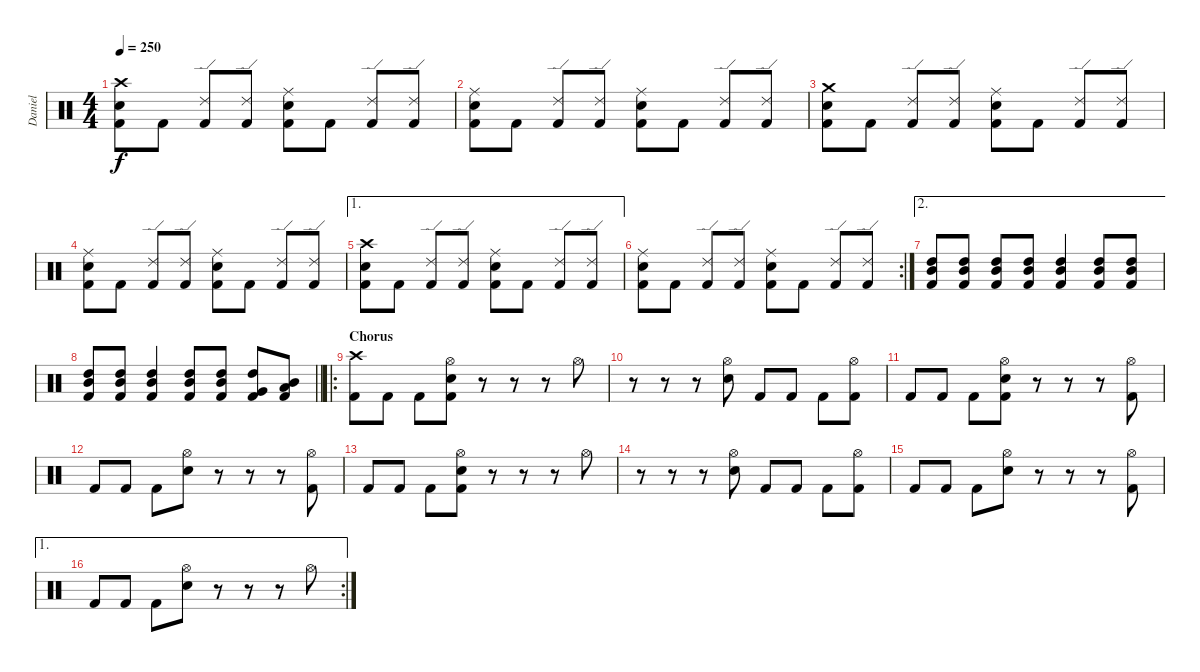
\track ("Daniel" "Daniel") {instrument percussion}
\staff {score}
\articulation defaults
\ts (4 4)
\tempo 250
\clef neutral
\ks c
("Crash high (hit)" "Snare (hit) 2" "Kick (hit) 2").8{dy f} "Kick (hit) 2".8 ("Ride (edge) 2" "Kick (hit) 2").8 ("Ride (edge) 2" "Kick (hit) 2").8 ("Ride (middle)" "Snare (hit) 2" "Kick (hit) 2").8 "Kick (hit) 2".8 ("Ride (edge) 2" "Kick (hit) 2").8 ("Ride (edge) 2" "Kick (hit) 2").8 |
("Ride (middle)" "Snare (hit) 2" "Kick (hit) 2").8 "Kick (hit) 2".8 ("Ride (edge) 2" "Kick (hit) 2").8 ("Ride (edge) 2" "Kick (hit) 2").8 ("Ride (middle)" "Snare (hit) 2" "Kick (hit) 2").8 "Kick (hit) 2".8 ("Ride (edge) 2" "Kick (hit) 2").8 ("Ride (edge) 2" "Kick (hit) 2").8 |
("Crash medium (hit)" "Snare (hit) 2" "Kick (hit) 2").8 "Kick (hit) 2".8 ("Ride (edge) 2" "Kick (hit) 2").8 ("Ride (edge) 2" "Kick (hit) 2").8 ("Ride (middle)" "Snare (hit) 2" "Kick (hit) 2").8 "Kick (hit) 2".8 ("Ride (edge) 2" "Kick (hit) 2").8 ("Ride (edge) 2" "Kick (hit) 2").8 |
("Ride (middle)" "Snare (hit) 2" "Kick (hit) 2").8 "Kick (hit) 2".8 ("Ride (edge) 2" "Kick (hit) 2").8 ("Ride (edge) 2" "Kick (hit) 2").8 ("Ride (middle)" "Snare (hit) 2" "Kick (hit) 2").8 "Kick (hit) 2".8 ("Ride (edge) 2" "Kick (hit) 2").8 ("Ride (edge) 2" "Kick (hit) 2").8 |
\ae 1
("Crash high (hit)" "Snare (hit) 2" "Kick (hit) 2").8 "Kick (hit) 2".8 ("Ride (edge) 2" "Kick (hit) 2").8 ("Ride (edge) 2" "Kick (hit) 2").8 ("Ride (middle)" "Snare (hit) 2" "Kick (hit) 2").8 "Kick (hit) 2".8 ("Ride (edge) 2" "Kick (hit) 2").8 ("Ride (edge) 2" "Kick (hit) 2").8 |
\rc 2
("Ride (middle)" "Snare (hit) 2" "Kick (hit) 2").8 "Kick (hit) 2".8 ("Ride (edge) 2" "Kick (hit) 2").8 ("Ride (edge) 2" "Kick (hit) 2").8 ("Ride (middle)" "Snare (hit) 2" "Kick (hit) 2").8 "Kick (hit) 2".8 ("Ride (edge) 2" "Kick (hit) 2").8 ("Ride (edge) 2" "Kick (hit) 2").8 |
\ae 2
("High Tom (hit)" "Mid Tom (hit)" "Kick (hit) 2").8 ("High Tom (hit)" "Mid Tom (hit)" "Kick (hit) 2").8 ("High Tom (hit)" "Mid Tom (hit)" "Kick (hit) 2").8 ("High Tom (hit)" "Mid Tom (hit)" "Kick (hit) 2").8 ("High Tom (hit)" "Mid Tom (hit)" "Kick (hit) 2").4 ("High Tom (hit)" "Mid Tom (hit)" "Kick (hit) 2").8 ("High Tom (hit)" "Mid Tom (hit)" "Kick (hit) 2").8 |
\barLineRight lightlight
("High Tom (hit)" "Mid Tom (hit)" "Kick (hit) 2").8 ("High Tom (hit)" "Mid Tom (hit)" "Kick (hit) 2").8 ("High Tom (hit)" "Mid Tom (hit)" "Kick (hit) 2").4 ("High Tom (hit)" "Mid Tom (hit)" "Kick (hit) 2").8 ("High Tom (hit)" "Mid Tom (hit)" "Kick (hit) 2").8 ("High Tom (hit)" "Very Low Tom (hit)" "Kick (hit) 2").8 ("Mid Tom (hit)" "Low Floor Tom (hit)" "Kick (hit) 2").8 |
\ro
\section ("" "Chorus")
("Crash high (hit)" "Kick (hit) 2").8 "Kick (hit) 2".8 "Kick (hit) 2".8 ("Hi-Hat (open)" "Snare (hit) 2" "Kick (hit) 2").8 r.8 r.8 r.8 "Hi-Hat (open)".8 |
r.8 r.8 r.8 ("Hi-Hat (open)" "Snare (hit) 2").8 "Kick (hit) 2".8 "Kick (hit) 2".8 "Kick (hit) 2".8 ("Hi-Hat (open)" "Kick (hit) 2").8 |
"Kick (hit) 2".8 "Kick (hit) 2".8 "Kick (hit) 2".8 ("Hi-Hat (open)" "Snare (hit) 2" "Kick (hit) 2").8 r.8 r.8 r.8 ("Hi-Hat (open)" "Kick (hit) 2").8 |
"Kick (hit) 2".8 "Kick (hit) 2".8 "Kick (hit) 2".8 ("Hi-Hat (open)" "Snare (hit) 2").8 r.8 r.8 r.8 ("Hi-Hat (open)" "Kick (hit) 2").8 |
"Kick (hit) 2".8 "Kick (hit) 2".8 "Kick (hit) 2".8 ("Hi-Hat (open)" "Snare (hit) 2" "Kick (hit) 2").8 r.8 r.8 r.8 "Hi-Hat (open)".8 |
r.8 r.8 r.8 ("Hi-Hat (open)" "Snare (hit) 2").8 "Kick (hit) 2".8 "Kick (hit) 2".8 "Kick (hit) 2".8 ("Hi-Hat (open)" "Kick (hit) 2").8 |
"Kick (hit) 2".8 "Kick (hit) 2".8 "Kick (hit) 2".8 ("Hi-Hat (open)" "Snare (hit) 2").8 r.8 r.8 r.8 ("Hi-Hat (open)" "Kick (hit) 2").8 |
\ae 1
\rc 2 "Kick (hit) 2".8 "Kick (hit) 2".8 "Kick (hit) 2".8
("Hi-Hat (open)" "Snare (hit) 2").8 r.8 r.8 r.8 "Hi-Hat (open)".8
